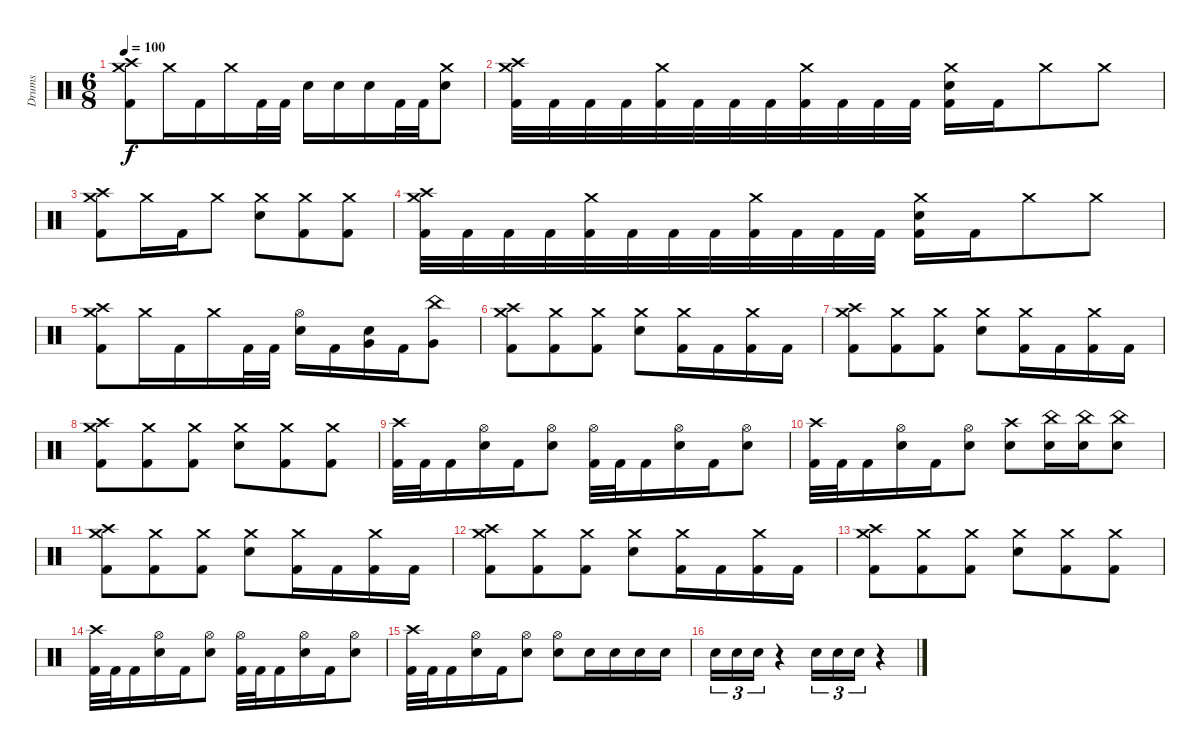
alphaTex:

\track ("Drums" "Drums") {instrument percussion}
\staff {score}
\articulation defaults
\ts (6 8)
\tempo 100
\clef neutral
\ks c
("Crash medium (hit)" "Crash high (hit)" "Kick (hit) 2").8{dy f} "Crash medium (hit)".16 "Kick (hit) 2".16 "Crash medium (hit)".16 "Kick (hit) 2".32 "Kick (hit) 2".32 "Electric Snare (hit)".16 "Electric Snare (hit)".16 "Electric Snare (hit)".16 "Kick (hit) 2".32 "Kick (hit) 2".32 ("Crash medium (hit)" "Electric Snare (hit)").8 |
("Crash medium (hit)" "Crash high (hit)" "Kick (hit) 2").32 "Kick (hit) 2".32 "Kick (hit) 2".32 "Kick (hit) 2".32 ("Crash medium (hit)" "Kick (hit) 2").32 "Kick (hit) 2".32 "Kick (hit) 2".32 "Kick (hit) 2".32 ("Crash medium (hit)" "Kick (hit) 2").32 "Kick (hit) 2".32 "Kick (hit) 2".32 "Kick (hit) 2".32 ("Crash medium (hit)" "Electric Snare (hit)" "Kick (hit) 2").16 "Kick (hit) 2".16 "Crash medium (hit)".8 "Crash medium (hit)".8 |
("Crash medium (hit)" "Crash high (hit)" "Kick (hit) 2").8 "Crash medium (hit)".16 "Kick (hit) 2".16 "Crash medium (hit)".8 ("Crash medium (hit)" "Electric Snare (hit)").8 ("Crash medium (hit)" "Kick (hit) 2").8 ("Crash medium (hit)" "Kick (hit) 2").8 |
("Crash medium (hit)" "Crash high (hit)" "Kick (hit) 2").32 "Kick (hit) 2".32 "Kick (hit) 2".32 "Kick (hit) 2".32 ("Crash medium (hit)" "Kick (hit) 2").32 "Kick (hit) 2".32 "Kick (hit) 2".32 "Kick (hit) 2".32 ("Crash medium (hit)" "Kick (hit) 2").32 "Kick (hit) 2".32 "Kick (hit) 2".32 "Kick (hit) 2".32 ("Crash medium (hit)" "Electric Snare (hit)" "Kick (hit) 2").16 "Kick (hit) 2".16 "Crash medium (hit)".8 "Crash medium (hit)".8 |
("Crash medium (hit)" "Crash high (hit)" "Kick (hit) 2").8 "Crash medium (hit)".16 "Kick (hit) 2".16 "Crash medium (hit)".16 "Kick (hit) 2".32 "Kick (hit) 2".32 ("Hi-Hat (open)" "Electric Snare (hit)").16 "Kick (hit) 2".16 ("Very Low Tom (hit)" "Electric Snare (hit)").16 "Kick (hit) 2".16 ("China (hit)" "Very Low Tom (hit)").8 |
("Crash medium (hit)" "Crash high (hit)" "Kick (hit) 2").8 ("Crash medium (hit)" "Kick (hit) 2").8 ("Crash medium (hit)" "Kick (hit) 2").8 ("Crash medium (hit)" "Electric Snare (hit)").8 ("Crash medium (hit)" "Kick (hit) 2").16 "Kick (hit) 2".16 ("Crash medium (hit)" "Kick (hit) 2").16 "Kick (hit) 2".16 |
("Crash medium (hit)" "Crash high (hit)" "Kick (hit) 2").8 ("Crash medium (hit)" "Kick (hit) 2").8 ("Crash medium (hit)" "Kick (hit) 2").8 ("Crash medium (hit)" "Electric Snare (hit)").8 ("Crash medium (hit)" "Kick (hit) 2").16 "Kick (hit) 2".16 ("Crash medium (hit)" "Kick (hit) 2").16 "Kick (hit) 2".16 |
("Crash medium (hit)" "Crash high (hit)" "Kick (hit) 2").8 ("Crash medium (hit)" "Kick (hit) 2").8 ("Crash medium (hit)" "Kick (hit) 2").8 ("Crash medium (hit)" "Electric Snare (hit)").8 ("Crash medium (hit)" "Kick (hit) 2").8 ("Crash medium (hit)" "Kick (hit) 2").8 |
("Crash high (hit)" "Kick (hit) 2").32 "Kick (hit) 2".32 "Kick (hit) 2".16 ("Hi-Hat (open)" "Electric Snare (hit)").16 "Kick (hit) 2".16 ("Hi-Hat (open)" "Electric Snare (hit)").8 ("Hi-Hat (open)" "Kick (hit) 2").32 "Kick (hit) 2".32 "Kick (hit) 2".16 ("Hi-Hat (open)" "Electric Snare (hit)").16 "Kick (hit) 2".16 ("Hi-Hat (open)" "Electric Snare (hit)").8 |
("Crash high (hit)" "Kick (hit) 2").32 "Kick (hit) 2".32 "Kick (hit) 2".16 ("Hi-Hat (open)" "Electric Snare (hit)").16 "Kick (hit) 2".16 ("Hi-Hat (open)" "Electric Snare (hit)").8 ("Crash high (hit)" "Electric Snare (hit)").8 ("China (hit)" "Electric Snare (hit)").16 ("China (hit)" "Electric Snare (hit)").16 ("China (hit)" "Electric Snare (hit)").8 |
("Crash medium (hit)" "Crash high (hit)" "Kick (hit) 2").8 ("Crash medium (hit)" "Kick (hit) 2").8 ("Crash medium (hit)" "Kick (hit) 2").8 ("Crash medium (hit)" "Electric Snare (hit)").8 ("Crash medium (hit)" "Kick (hit) 2").16 "Kick (hit) 2".16 ("Crash medium (hit)" "Kick (hit) 2").16 "Kick (hit) 2".16 |
("Crash medium (hit)" "Crash high (hit)" "Kick (hit) 2").8 ("Crash medium (hit)" "Kick (hit) 2").8 ("Crash medium (hit)" "Kick (hit) 2").8 ("Crash medium (hit)" "Electric Snare (hit)").8 ("Crash medium (hit)" "Kick (hit) 2").16 "Kick (hit) 2".16 ("Crash medium (hit)" "Kick (hit) 2").16 "Kick (hit) 2".16 |
("Crash medium (hit)" "Crash high (hit)" "Kick (hit) 2").8 ("Crash medium (hit)" "Kick (hit) 2").8 ("Crash medium (hit)" "Kick (hit) 2").8 ("Crash medium (hit)" "Electric Snare (hit)").8 ("Crash medium (hit)" "Kick (hit) 2").8 ("Crash medium (hit)" "Kick (hit) 2").8 |
("Crash high (hit)" "Kick (hit) 2").32 "Kick (hit) 2".32 "Kick (hit) 2".16 ("Hi-Hat (open)" "Electric Snare (hit)").16 "Kick (hit) 2".16 ("Hi-Hat (open)" "Electric Snare (hit)").8 ("Hi-Hat (open)" "Kick (hit) 2").32 "Kick (hit) 2".32 "Kick (hit) 2".16 ("Hi-Hat (open)" "Electric Snare (hit)").16 "Kick (hit) 2".16 ("Hi-Hat (open)" "Electric Snare (hit)").8 |
("Crash high (hit)" "Kick (hit) 2").32 "Kick (hit) 2".32 "Kick (hit) 2".16 ("Hi-Hat (open)" "Electric Snare (hit)").16 "Kick (hit) 2".16 ("Hi-Hat (open)" "Electric Snare (hit)").8 ("Hi-Hat (open)" "Electric Snare (hit)").8 "Electric Snare (hit)".16 "Electric Snare (hit)".16 "Electric Snare (hit)".16 "Electric Snare (hit)".16 |
"Electric Snare (hit)".16{tu (3 2)} "Electric Snare (hit)".16{tu (3 2)} "Electric Snare (hit)".16{tu (3 2)} r.4 "Electric Snare (hit)".16{tu (3 2)} "Electric Snare (hit)".16{tu (3 2)} "Electric Snare (hit)".16{tu (3 2)} r.4
